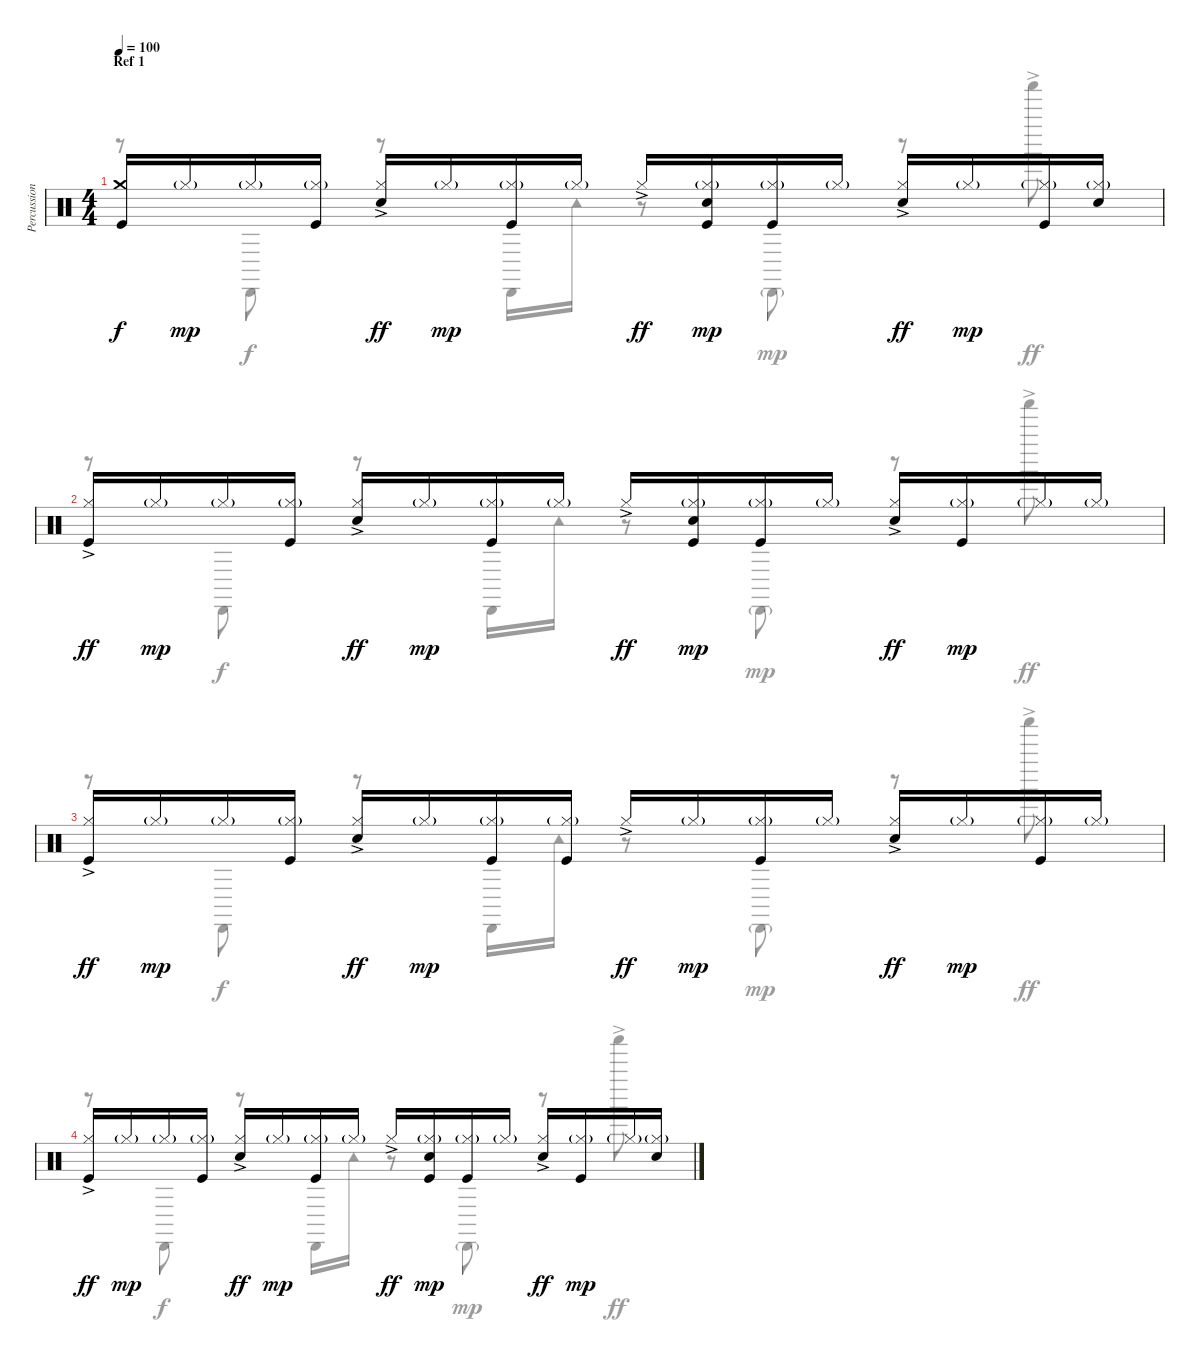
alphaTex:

\track ("Percussions" "Percussion") {instrument percussion}
\staff {score}
\articulation defaults
\voice
\ts (4 4)
\section ("" "Ref 1")
\tempo 100
\clef neutral
\ks c
("Kick (hit)" "Crash medium (hit)").16{dy f} "Hi-Hat (closed)"{g}.16{dy mp} "Hi-Hat (closed)"{g}.16 ("Kick (hit)" "Hi-Hat (closed)"{g}).16 ("Electric Snare (hit)" "Hi-Hat (closed)"{ac}).16{dy ff} "Hi-Hat (closed)"{g}.16{dy mp} ("Kick (hit)" "Hi-Hat (closed)"{g}).16 "Hi-Hat (closed)"{g}.16 "Hi-Hat (closed)"{ac}.16{dy ff} ("Kick (hit)" "Electric Snare (hit)" "Hi-Hat (closed)"{g}).16{dy mp} ("Kick (hit)" "Hi-Hat (closed)"{g}).16 "Hi-Hat (closed)"{g}.16 ("Snare (hit) 2" "Hi-Hat (closed)"{ac}).16{dy ff} "Hi-Hat (closed)"{g}.16{dy mp} ("Kick (hit)" "Hi-Hat (closed)"{g}).16 ("Electric Snare (hit)" "Hi-Hat (closed)"{g}).16 |
("Kick (hit)" "Hi-Hat (closed)"{ac}).16{dy ff} "Hi-Hat (closed)"{g}.16{dy mp} "Hi-Hat (closed)"{g}.16 ("Kick (hit)" "Hi-Hat (closed)"{g}).16 ("Electric Snare (hit)" "Hi-Hat (closed)"{ac}).16{dy ff} "Hi-Hat (closed)"{g}.16{dy mp} ("Kick (hit)" "Hi-Hat (closed)"{g}).16 "Hi-Hat (closed)"{g}.16 "Hi-Hat (closed)"{ac}.16{dy ff} ("Kick (hit)" "Electric Snare (hit)" "Hi-Hat (closed)"{g}).16{dy mp} ("Kick (hit)" "Hi-Hat (closed)"{g}).16 "Hi-Hat (closed)"{g}.16 ("Snare (hit) 2" "Hi-Hat (closed)"{ac}).16{dy ff} ("Kick (hit)" "Hi-Hat (closed)"{g}).16{dy mp} "Hi-Hat (closed)"{g}.16 "Hi-Hat (closed)"{g}.16 |
("Kick (hit)" "Hi-Hat (closed)"{ac}).16{dy ff} "Hi-Hat (closed)"{g}.16{dy mp} "Hi-Hat (closed)"{g}.16 ("Kick (hit)" "Hi-Hat (closed)"{g}).16 ("Electric Snare (hit)" "Hi-Hat (closed)"{ac}).16{dy ff} "Hi-Hat (closed)"{g}.16{dy mp} ("Kick (hit)" "Hi-Hat (closed)"{g}).16 ("Kick (hit)" "Hi-Hat (closed)"{g}).16 "Hi-Hat (closed)"{ac}.16{dy ff} "Hi-Hat (closed)"{g}.16{dy mp} ("Kick (hit)" "Hi-Hat (closed)"{g}).16 "Hi-Hat (closed)"{g}.16 ("Snare (hit) 2" "Hi-Hat (closed)"{ac}).16{dy ff} "Hi-Hat (closed)"{g}.16{dy mp} ("Kick (hit)" "Hi-Hat (closed)"{g}).16 "Hi-Hat (closed)"{g}.16 |
("Kick (hit)" "Hi-Hat (closed)"{ac}).16{dy ff} "Hi-Hat (closed)"{g}.16{dy mp} "Hi-Hat (closed)"{g}.16 ("Kick (hit)" "Hi-Hat (closed)"{g}).16 ("Electric Snare (hit)" "Hi-Hat (closed)"{ac}).16{dy ff} "Hi-Hat (closed)"{g}.16{dy mp} ("Kick (hit)" "Hi-Hat (closed)"{g}).16 "Hi-Hat (closed)"{g}.16 "Hi-Hat (closed)"{ac}.16{dy ff} ("Kick (hit)" "Electric Snare (hit)" "Hi-Hat (closed)"{g}).16{dy mp} ("Kick (hit)" "Hi-Hat (closed)"{g}).16 "Hi-Hat (closed)"{g}.16 ("Snare (hit) 2" "Hi-Hat (closed)"{ac}).16{dy ff} ("Kick (hit)" "Hi-Hat (closed)"{g}).16{dy mp} "Hi-Hat (closed)"{g}.16 ("Snare (hit) 2" "Hi-Hat (closed)"{g}).16
\voice
\clef neutral
\ottava regular
\simile none
\ks c
r.8{dy ff} "Cabasa (hit)".8{dy f} r.8 "Cabasa (hit)".16 "Tambourine (hit)".16 r.8 "Cabasa (hit)"{g}.8{dy mp} r.8 "Shaker (hit)"{ac}.8{dy ff} |
r.8 "Cabasa (hit)".8{dy f} r.8 "Cabasa (hit)".16 "Tambourine (hit)".16 r.8 "Cabasa (hit)"{g}.8{dy mp} r.8 "Shaker (hit)"{ac}.8{dy ff} |
r.8 "Cabasa (hit)".8{dy f} r.8 "Cabasa (hit)".16 "Tambourine (hit)".16 r.8 "Cabasa (hit)"{g}.8{dy mp} r.8 "Shaker (hit)"{ac}.8{dy ff} |
r.8 "Cabasa (hit)".8{dy f} r.8 "Cabasa (hit)".16 "Tambourine (hit)".16 r.8 "Cabasa (hit)"{g}.8{dy mp} r.8 "Shaker (hit)"{ac}.8{dy ff}
